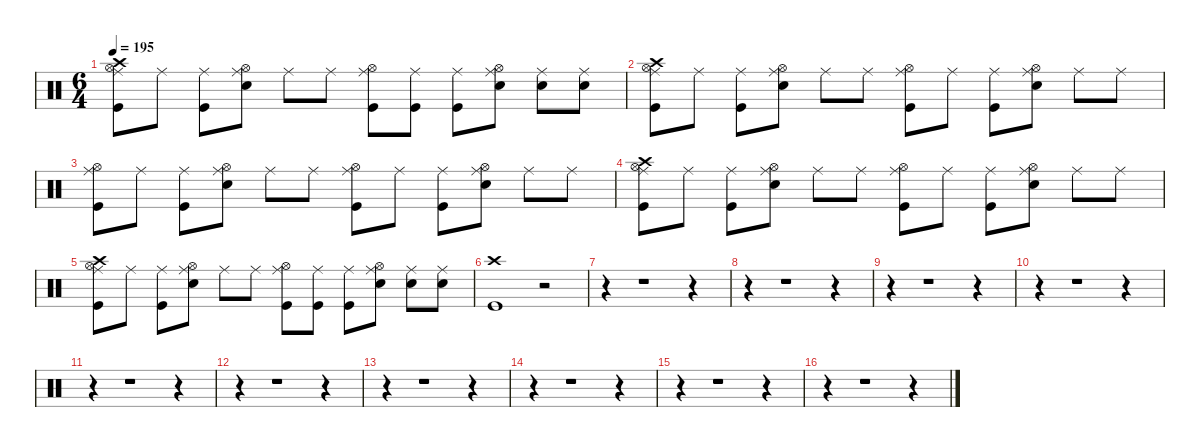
\defaultSystemsLayout 4
\hideDynamics
\bracketExtendMode nobrackets
\singleTrackTrackNamePolicy hidden
\multiTrackTrackNamePolicy hidden
\firstSystemTrackNameMode fullname
\firstSystemTrackNameOrientation horizontal
\otherSystemsTrackNameOrientation horizontal
\track ("Percussion" "drm.") {instrument percussion}
\staff {score}
\articulation defaults
\ts (6 4)
\tempo 195
\clef neutral
\ks c
("Crash high (hit)" "Ride (middle)" "Hi-Hat (open)" "Kick (hit)").8{dy f beam Down} "Ride (middle)".8{beam Down} ("Ride (middle)" "Kick (hit)").8{beam Down} ("Ride (middle)" "Snare (hit) 2" "Hi-Hat (open)").8{beam Down} "Ride (middle)".8{beam Down} "Ride (middle)".8{beam Down} ("Ride (middle)" "Hi-Hat (open)" "Kick (hit)").8{beam Down} ("Ride (middle)" "Kick (hit)").8{beam Down} ("Ride (middle)" "Kick (hit)").8{beam Down} ("Ride (middle)" "Snare (hit) 2" "Hi-Hat (open)").8{beam Down} ("Ride (middle)" "Snare (hit) 2").8{beam Down} ("Ride (middle)" "Snare (hit) 2").8{beam Down} |
("Crash high (hit)" "Ride (middle)" "Hi-Hat (open)" "Kick (hit)").8{beam Down} "Ride (middle)".8{beam Down} ("Ride (middle)" "Kick (hit)").8{beam Down} ("Ride (middle)" "Snare (hit) 2" "Hi-Hat (open)").8{beam Down} "Ride (middle)".8{beam Down} "Ride (middle)".8{beam Down} ("Ride (middle)" "Hi-Hat (open)" "Kick (hit)").8{beam Down} "Ride (middle)".8{beam Down} ("Ride (middle)" "Kick (hit)").8{beam Down} ("Ride (middle)" "Snare (hit) 2" "Hi-Hat (open)").8{beam Down} "Ride (middle)".8{beam Down} "Ride (middle)".8{beam Down} |
("Ride (middle)" "Hi-Hat (open)" "Kick (hit)").8{beam Down} "Ride (middle)".8{beam Down} ("Ride (middle)" "Kick (hit)").8{beam Down} ("Ride (middle)" "Snare (hit) 2" "Hi-Hat (open)").8{beam Down} "Ride (middle)".8{beam Down} "Ride (middle)".8{beam Down} ("Ride (middle)" "Hi-Hat (open)" "Kick (hit)").8{beam Down} "Ride (middle)".8{beam Down} ("Ride (middle)" "Kick (hit)").8{beam Down} ("Ride (middle)" "Snare (hit) 2" "Hi-Hat (open)").8{beam Down} "Ride (middle)".8{beam Down} "Ride (middle)".8{beam Down} |
("Crash high (hit)" "Ride (middle)" "Hi-Hat (open)" "Kick (hit)").8{beam Down} "Ride (middle)".8{beam Down} ("Ride (middle)" "Kick (hit)").8{beam Down} ("Ride (middle)" "Snare (hit) 2" "Hi-Hat (open)").8{beam Down} "Ride (middle)".8{beam Down} "Ride (middle)".8{beam Down} ("Ride (middle)" "Hi-Hat (open)" "Kick (hit)").8{beam Down} "Ride (middle)".8{beam Down} ("Ride (middle)" "Kick (hit)").8{beam Down} ("Ride (middle)" "Snare (hit) 2" "Hi-Hat (open)").8{beam Down} "Ride (middle)".8{beam Down} "Ride (middle)".8{beam Down} |
("Crash high (hit)" "Ride (middle)" "Hi-Hat (open)" "Kick (hit)").8{beam Down} "Ride (middle)".8{beam Down} ("Ride (middle)" "Kick (hit)").8{beam Down} ("Ride (middle)" "Snare (hit) 2" "Hi-Hat (open)").8{beam Down} "Ride (middle)".8{beam Down} "Ride (middle)".8{beam Down} ("Ride (middle)" "Hi-Hat (open)" "Kick (hit)").8{beam Down} ("Ride (middle)" "Kick (hit)").8{beam Down} ("Ride (middle)" "Kick (hit)").8{beam Down} ("Ride (middle)" "Snare (hit) 2" "Hi-Hat (open)").8{beam Down} ("Ride (middle)" "Snare (hit) 2").8{beam Down} ("Ride (middle)" "Snare (hit) 2").8{beam Down} |
("Crash high (hit)" "Kick (hit)").1{beam Down} r.2{beam Down} |
r.4{beam Down} r.1{beam Down} r.4{beam Down} |
r.4{beam Down} r.1{beam Down} r.4{beam Down} |
r.4{beam Down} r.1{beam Down} r.4{beam Down} |
r.4{beam Down} r.1{beam Down} r.4{beam Down} |
r.4{beam Down} r.1{beam Down} r.4{beam Down} |
r.4{beam Down} r.1{beam Down} r.4{beam Down} |
r.4{beam Down} r.1{beam Down} r.4{beam Down} |
r.4{beam Down} r.1{beam Down} r.4{beam Down} |
r.4{beam Down} r.1{beam Down} r.4{beam Down} |
r.4{beam Down} r.1{beam Down} r.4{beam Down}
